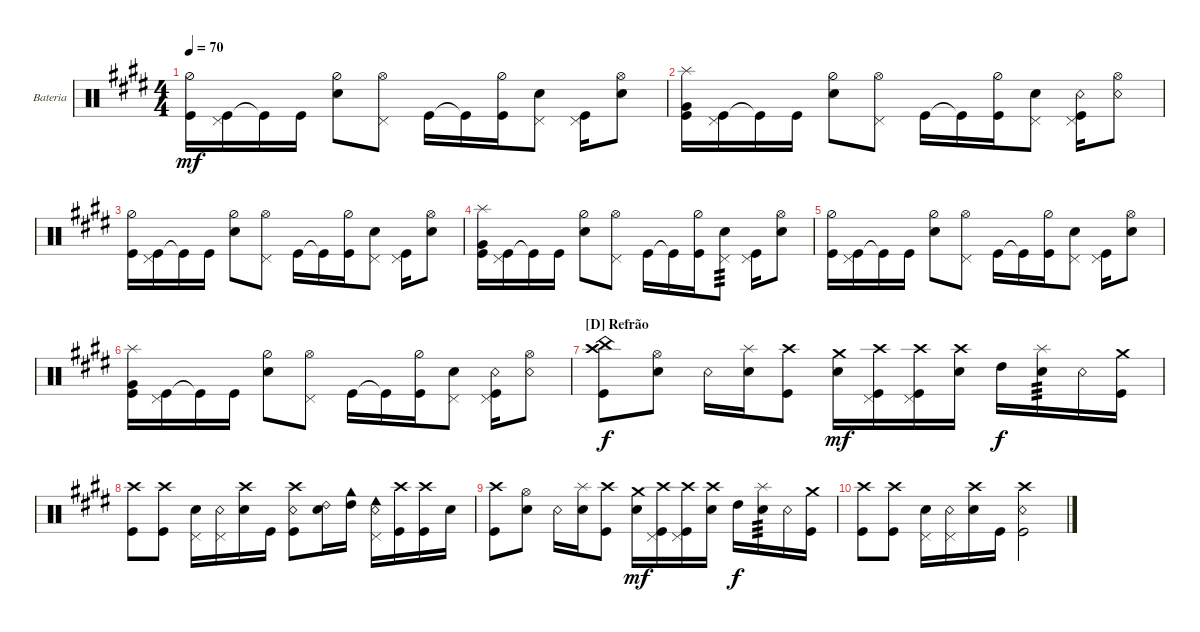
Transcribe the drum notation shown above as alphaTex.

\defaultSystemsLayout 4
\bracketExtendMode groupsimilarinstruments
\firstSystemTrackNameOrientation horizontal
\otherSystemsTrackNameOrientation horizontal
\track ("Bateria" "Bateria") {instrument percussion}
\staff {score}
\articulation defaults
\ts (4 4)
\tempo 70
\clef neutral
\scale
0.5
\ks e
("Kick (hit)" "Hi-Hat (half)").16{dy mf} ("Kick (hit)" "Pedal Hi-Hat (hit)").16 "Kick (hit)"{t}.16 "Kick (hit)".16 ("Snare (hit) 2" "Hi-Hat (half)").8 ("Hi-Hat (open)" "Pedal Hi-Hat (hit)").8 "Kick (hit)".16 "Kick (hit)"{t}.16 ("Kick (hit)" "Hi-Hat (half)").16 ("Snare (hit) 2" "Pedal Hi-Hat (hit)").8 ("Kick (hit)" "Pedal Hi-Hat (hit)").16 ("Snare (hit) 2" "Hi-Hat (open)").8 |
\scale
0.5 ("Kick (hit)" "Very Low Tom (hit)" "Splash (hit)").16 ("Kick (hit)" "Pedal Hi-Hat (hit)").16 "Kick (hit)"{t}.16 "Kick (hit)".16 ("Snare (hit) 2" "Hi-Hat (half)").8 ("Hi-Hat (open)" "Pedal Hi-Hat (hit)").8 "Kick (hit)".16 "Kick (hit)"{t}.16 ("Kick (hit)" "Hi-Hat (half)").16 ("Snare (hit) 2" "Pedal Hi-Hat (hit)").8 ("Kick (hit)" "Pedal Hi-Hat (hit)" "Snare (rim shot)").16 ("Snare (rim shot)" "Hi-Hat (open)").8 |
\scale
0.5 ("Kick (hit)" "Hi-Hat (half)").16 ("Kick (hit)" "Pedal Hi-Hat (hit)").16 "Kick (hit)"{t}.16 "Kick (hit)".16 ("Snare (hit) 2" "Hi-Hat (half)").8 ("Hi-Hat (open)" "Pedal Hi-Hat (hit)").8 "Kick (hit)".16 "Kick (hit)"{t}.16 ("Kick (hit)" "Hi-Hat (half)").16 ("Snare (hit) 2" "Pedal Hi-Hat (hit)").8 ("Kick (hit)" "Pedal Hi-Hat (hit)").16 ("Snare (hit) 2" "Hi-Hat (open)").8 |
\scale
0.5 ("Kick (hit)" "Very Low Tom (hit)" "Splash (hit)").16 ("Kick (hit)" "Pedal Hi-Hat (hit)").16 "Kick (hit)"{t}.16 "Kick (hit)".16 ("Snare (hit) 2" "Hi-Hat (half)").8 ("Hi-Hat (open)" "Pedal Hi-Hat (hit)").8 "Kick (hit)".16 "Kick (hit)"{t}.16 ("Kick (hit)" "Hi-Hat (half)").16 ("Snare (hit) 2" "Pedal Hi-Hat (hit)").8{tp 3} ("Kick (hit)" "Pedal Hi-Hat (hit)").16 ("Snare (hit) 2" "Hi-Hat (open)").8 |
\scale
0.5 ("Kick (hit)" "Hi-Hat (half)").16 ("Kick (hit)" "Pedal Hi-Hat (hit)").16 "Kick (hit)"{t}.16 "Kick (hit)".16 ("Snare (hit) 2" "Hi-Hat (half)").8 ("Hi-Hat (open)" "Pedal Hi-Hat (hit)").8 "Kick (hit)".16 "Kick (hit)"{t}.16 ("Kick (hit)" "Hi-Hat (half)").16 ("Snare (hit) 2" "Pedal Hi-Hat (hit)").8 ("Kick (hit)" "Pedal Hi-Hat (hit)").16 ("Snare (hit) 2" "Hi-Hat (open)").8 |
\scale
0.5 ("Kick (hit)" "Very Low Tom (hit)" "Splash (hit)").16 ("Kick (hit)" "Pedal Hi-Hat (hit)").16 "Kick (hit)"{t}.16 "Kick (hit)".16 ("Snare (hit) 2" "Hi-Hat (half)").8 ("Hi-Hat (open)" "Pedal Hi-Hat (hit)").8 "Kick (hit)".16 "Kick (hit)"{t}.16 ("Kick (hit)" "Hi-Hat (half)").16 ("Snare (hit) 2" "Pedal Hi-Hat (hit)").8 ("Kick (hit)" "Pedal Hi-Hat (hit)" "Snare (rim shot)").16 ("Snare (rim shot)" "Hi-Hat (open)").8 |
\section ("D" "Refrão")
\scale
0.5 ("Kick (hit)" "Crash high (hit)" "China (hit)").8{dy f} ("Snare (hit) 2" "Hi-Hat (open)").8 "Snare (rim shot)".16 ("Snare (hit) 2" "Splash (hit)").16 ("Kick (hit)" "Crash high (hit)").8 ("Snare (hit) 2" "Crash medium (hit)").16{dy mf} ("Kick (hit)" "Pedal Hi-Hat (hit)" "Crash high (hit)").16 ("Kick (hit)" "Pedal Hi-Hat (hit)" "Crash high (hit)").16 ("Snare (hit) 2" "Crash high (hit)").16 "High Tom (hit)".16{dy f} ("Snare (hit) 2" "Splash (hit)").16{tp 3} "Snare (rim shot)".16 ("Kick (hit)" "Crash medium (hit)").16 |
("Kick (hit)" "Crash high (hit)").8 ("Kick (hit)" "Crash high (hit)").8 ("Snare (hit) 2" "Pedal Hi-Hat (hit)").16 ("Snare (rim shot)" "Pedal Hi-Hat (hit)").16 ("Snare (hit) 2" "Crash high (hit)").16 "Kick (hit)".16 ("Kick (hit)" "Snare (rim shot)" "Crash high (hit)").8 ("Ride (bell) 2" "Snare (hit) 2").16 ("High Tom (hit)" "Cowbell high (hit)").16 ("Snare (rim shot)" "Cowbell low (hit)" "Pedal Hi-Hat (hit)").16 ("Kick (hit)" "Crash high (hit)").16 ("Kick (hit)" "Crash high (hit)").16 "Snare (hit) 2".16 |
("Kick (hit)" "Crash high (hit)").8 ("Snare (hit) 2" "Hi-Hat (open)").8 "Snare (rim shot)".16 ("Snare (hit) 2" "Splash (hit)").16 ("Kick (hit)" "Crash high (hit)").8 ("Snare (hit) 2" "Crash medium (hit)").16{dy mf} ("Kick (hit)" "Pedal Hi-Hat (hit)" "Crash high (hit)").16 ("Kick (hit)" "Pedal Hi-Hat (hit)" "Crash high (hit)").16 ("Snare (hit) 2" "Crash high (hit)").16 "High Tom (hit)".16{dy f} ("Snare (hit) 2" "Splash (hit)").16{tp 3} "Snare (rim shot)".16 ("Kick (hit)" "Crash medium (hit)").16 |
("Kick (hit)" "Crash high (hit)").8 ("Kick (hit)" "Crash high (hit)").8 ("Snare (hit) 2" "Pedal Hi-Hat (hit)").16 ("Snare (rim shot)" "Pedal Hi-Hat (hit)").16 ("Snare (hit) 2" "Crash high (hit)").16 "Kick (hit)".16 ("Kick (hit)" "Snare (rim shot)" "Crash high (hit)").2 |
|
\scale
0.5 |
\scale
0.5
